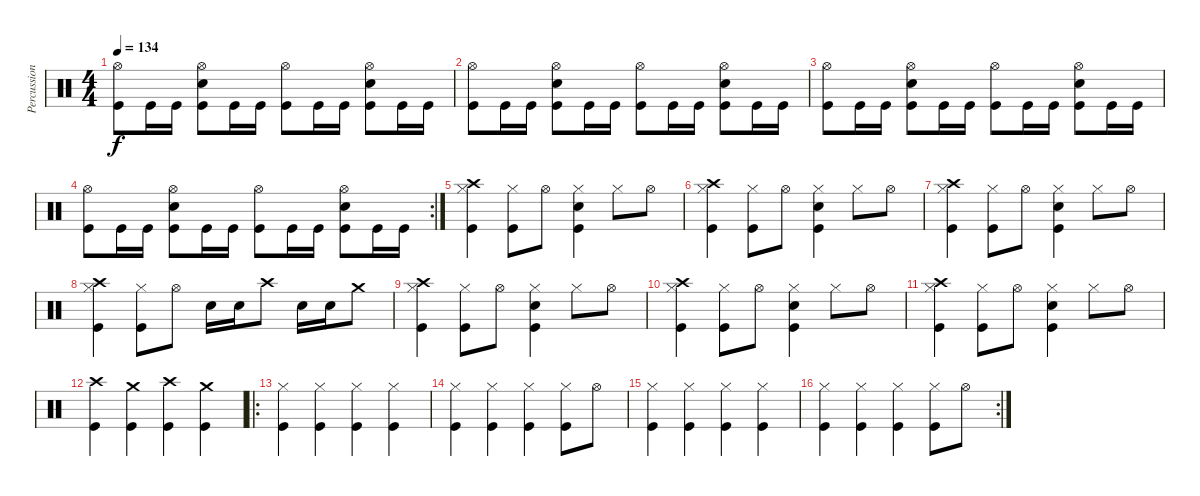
\track ("Percussion" "Percussion") {instrument percussion}
\staff {score}
\articulation defaults
\ts (4 4)
\tempo 134
\clef neutral
\ks c
("Hi-Hat (open)" "Kick (hit)").8{dy f} "Kick (hit)".16 "Kick (hit)".16 ("Hi-Hat (open)" "Kick (hit)" "Snare (hit) 2").8 "Kick (hit)".16 "Kick (hit)".16 ("Hi-Hat (open)" "Kick (hit)").8 "Kick (hit)".16 "Kick (hit)".16 ("Hi-Hat (open)" "Kick (hit)" "Snare (hit) 2").8 "Kick (hit)".16 "Kick (hit)".16 |
("Hi-Hat (open)" "Kick (hit)").8 "Kick (hit)".16 "Kick (hit)".16 ("Hi-Hat (open)" "Kick (hit)" "Snare (hit) 2").8 "Kick (hit)".16 "Kick (hit)".16 ("Hi-Hat (open)" "Kick (hit)").8 "Kick (hit)".16 "Kick (hit)".16 ("Hi-Hat (open)" "Kick (hit)" "Snare (hit) 2").8 "Kick (hit)".16 "Kick (hit)".16 |
("Hi-Hat (open)" "Kick (hit)").8 "Kick (hit)".16 "Kick (hit)".16 ("Hi-Hat (open)" "Kick (hit)" "Snare (hit) 2").8 "Kick (hit)".16 "Kick (hit)".16 ("Hi-Hat (open)" "Kick (hit)").8 "Kick (hit)".16 "Kick (hit)".16 ("Hi-Hat (open)" "Kick (hit)" "Snare (hit) 2").8 "Kick (hit)".16 "Kick (hit)".16 |
\rc 2
("Hi-Hat (open)" "Kick (hit)").8 "Kick (hit)".16 "Kick (hit)".16 ("Hi-Hat (open)" "Kick (hit)" "Snare (hit) 2").8 "Kick (hit)".16 "Kick (hit)".16 ("Hi-Hat (open)" "Kick (hit)").8 "Kick (hit)".16 "Kick (hit)".16 ("Hi-Hat (open)" "Kick (hit)" "Snare (hit) 2").8 "Kick (hit)".16 "Kick (hit)".16 |
("Hi-Hat (closed)" "Kick (hit)" "Crash high (hit)").4 ("Hi-Hat (closed)" "Kick (hit)").8 "Hi-Hat (open)".8 ("Hi-Hat (closed)" "Kick (hit)" "Snare (hit) 2").4 "Hi-Hat (closed)".8 "Hi-Hat (open)".8 |
("Hi-Hat (closed)" "Kick (hit)" "Crash high (hit)").4 ("Hi-Hat (closed)" "Kick (hit)").8 "Hi-Hat (open)".8 ("Hi-Hat (closed)" "Kick (hit)" "Snare (hit) 2").4 "Hi-Hat (closed)".8 "Hi-Hat (open)".8 |
("Hi-Hat (closed)" "Kick (hit)" "Crash high (hit)").4 ("Hi-Hat (closed)" "Kick (hit)").8 "Hi-Hat (open)".8 ("Hi-Hat (closed)" "Kick (hit)" "Snare (hit) 2").4 "Hi-Hat (closed)".8 "Hi-Hat (open)".8 |
("Hi-Hat (closed)" "Kick (hit)" "Crash high (hit)").4 ("Hi-Hat (closed)" "Kick (hit)").8 "Hi-Hat (open)".8 "Snare (hit) 2".16 "Snare (hit) 2".16 "Crash high (hit)".8 "Snare (hit) 2".16 "Snare (hit) 2".16 "Crash medium (hit)".8 |
("Hi-Hat (closed)" "Kick (hit)" "Crash high (hit)").4 ("Hi-Hat (closed)" "Kick (hit)").8 "Hi-Hat (open)".8 ("Hi-Hat (closed)" "Kick (hit)" "Snare (hit) 2").4 "Hi-Hat (closed)".8 "Hi-Hat (open)".8 |
("Hi-Hat (closed)" "Kick (hit)" "Crash high (hit)").4 ("Hi-Hat (closed)" "Kick (hit)").8 "Hi-Hat (open)".8 ("Hi-Hat (closed)" "Kick (hit)" "Snare (hit) 2").4 "Hi-Hat (closed)".8 "Hi-Hat (open)".8 |
("Hi-Hat (closed)" "Kick (hit)" "Crash high (hit)").4 ("Hi-Hat (closed)" "Kick (hit)").8 "Hi-Hat (open)".8 ("Hi-Hat (closed)" "Kick (hit)" "Snare (hit) 2").4 "Hi-Hat (closed)".8 "Hi-Hat (open)".8 |
("Kick (hit)" "Crash high (hit)").4 ("Kick (hit)" "Crash medium (hit)").4 ("Kick (hit)" "Crash high (hit)").4 ("Kick (hit)" "Crash medium (hit)").4 |
\ro
("Kick (hit)" "Hi-Hat (closed)").4 ("Kick (hit)" "Hi-Hat (closed)").4 ("Kick (hit)" "Hi-Hat (closed)").4 ("Kick (hit)" "Hi-Hat (closed)").4 |
("Kick (hit)" "Hi-Hat (closed)").4 ("Kick (hit)" "Hi-Hat (closed)").4 ("Kick (hit)" "Hi-Hat (closed)").4 ("Kick (hit)" "Hi-Hat (closed)").8 "Hi-Hat (open)".8 |
("Kick (hit)" "Hi-Hat (closed)").4 ("Kick (hit)" "Hi-Hat (closed)").4 ("Kick (hit)" "Hi-Hat (closed)").4 ("Kick (hit)" "Hi-Hat (closed)").4 |
\rc 2
("Kick (hit)" "Hi-Hat (closed)").4 ("Kick (hit)" "Hi-Hat (closed)").4 ("Kick (hit)" "Hi-Hat (closed)").4 ("Kick (hit)" "Hi-Hat (closed)").8 "Hi-Hat (open)".8
